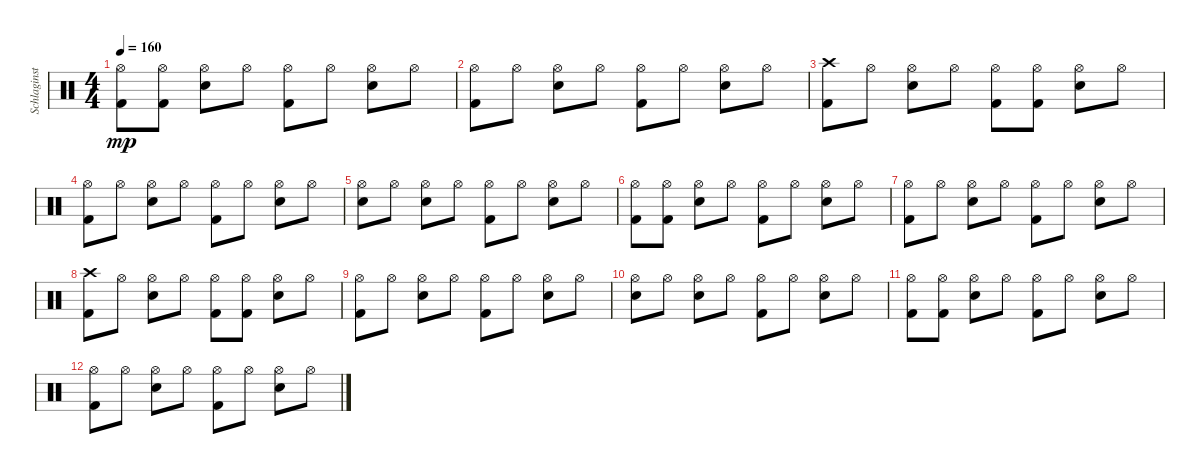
\track ("Schlaginstrumente - Auswahl" "Schlaginst") {instrument percussion}
\staff {score}
\articulation defaults
\ts (4 4)
\tempo 160
\clef neutral
\ks c
("Hi-Hat (open)" "Kick (hit) 2").8{dy mp} ("Hi-Hat (open)" "Kick (hit) 2").8 ("Hi-Hat (open)" "Snare (hit) 2").8 "Hi-Hat (open)".8 ("Hi-Hat (open)" "Kick (hit) 2").8 "Hi-Hat (open)".8 ("Hi-Hat (open)" "Snare (hit) 2").8 "Hi-Hat (open)".8 |
("Hi-Hat (open)" "Kick (hit) 2").8 "Hi-Hat (open)".8 ("Hi-Hat (open)" "Snare (hit) 2").8 "Hi-Hat (open)".8 ("Hi-Hat (open)" "Kick (hit) 2").8 "Hi-Hat (open)".8 ("Hi-Hat (open)" "Snare (hit) 2").8 "Hi-Hat (open)".8 |
("Crash high (hit)" "Kick (hit) 2").8 "Hi-Hat (open)".8 ("Hi-Hat (open)" "Snare (hit) 2").8 "Hi-Hat (open)".8 ("Hi-Hat (open)" "Kick (hit) 2").8 ("Hi-Hat (open)" "Kick (hit) 2").8 ("Hi-Hat (open)" "Snare (hit) 2").8 "Hi-Hat (open)".8 |
("Hi-Hat (open)" "Kick (hit) 2").8 "Hi-Hat (open)".8 ("Hi-Hat (open)" "Snare (hit) 2").8 "Hi-Hat (open)".8 ("Hi-Hat (open)" "Kick (hit) 2").8 "Hi-Hat (open)".8 ("Hi-Hat (open)" "Snare (hit) 2").8 "Hi-Hat (open)".8 |
("Hi-Hat (open)" "Snare (hit) 2").8 "Hi-Hat (open)".8 ("Hi-Hat (open)" "Snare (hit) 2").8 "Hi-Hat (open)".8 ("Hi-Hat (open)" "Kick (hit) 2").8 "Hi-Hat (open)".8 ("Hi-Hat (open)" "Snare (hit) 2").8 "Hi-Hat (open)".8 |
("Hi-Hat (open)" "Kick (hit) 2").8 ("Hi-Hat (open)" "Kick (hit) 2").8 ("Hi-Hat (open)" "Snare (hit) 2").8 "Hi-Hat (open)".8 ("Hi-Hat (open)" "Kick (hit) 2").8 "Hi-Hat (open)".8 ("Hi-Hat (open)" "Snare (hit) 2").8 "Hi-Hat (open)".8 |
("Hi-Hat (open)" "Kick (hit) 2").8 "Hi-Hat (open)".8 ("Hi-Hat (open)" "Snare (hit) 2").8 "Hi-Hat (open)".8 ("Hi-Hat (open)" "Kick (hit) 2").8 "Hi-Hat (open)".8 ("Hi-Hat (open)" "Snare (hit) 2").8 "Hi-Hat (open)".8 |
("Crash high (hit)" "Kick (hit) 2").8 "Hi-Hat (open)".8 ("Hi-Hat (open)" "Snare (hit) 2").8 "Hi-Hat (open)".8 ("Hi-Hat (open)" "Kick (hit) 2").8 ("Hi-Hat (open)" "Kick (hit) 2").8 ("Hi-Hat (open)" "Snare (hit) 2").8 "Hi-Hat (open)".8 |
("Hi-Hat (open)" "Kick (hit) 2").8 "Hi-Hat (open)".8 ("Hi-Hat (open)" "Snare (hit) 2").8 "Hi-Hat (open)".8 ("Hi-Hat (open)" "Kick (hit) 2").8 "Hi-Hat (open)".8 ("Hi-Hat (open)" "Snare (hit) 2").8 "Hi-Hat (open)".8 |
("Hi-Hat (open)" "Snare (hit) 2").8 "Hi-Hat (open)".8 ("Hi-Hat (open)" "Snare (hit) 2").8 "Hi-Hat (open)".8 ("Hi-Hat (open)" "Kick (hit) 2").8 "Hi-Hat (open)".8 ("Hi-Hat (open)" "Snare (hit) 2").8 "Hi-Hat (open)".8 |
("Hi-Hat (open)" "Kick (hit) 2").8 ("Hi-Hat (open)" "Kick (hit) 2").8 ("Hi-Hat (open)" "Snare (hit) 2").8 "Hi-Hat (open)".8 ("Hi-Hat (open)" "Kick (hit) 2").8 "Hi-Hat (open)".8 ("Hi-Hat (open)" "Snare (hit) 2").8 "Hi-Hat (open)".8 |
("Hi-Hat (open)" "Kick (hit) 2").8 "Hi-Hat (open)".8 ("Hi-Hat (open)" "Snare (hit) 2").8 "Hi-Hat (open)".8 ("Hi-Hat (open)" "Kick (hit) 2").8 "Hi-Hat (open)".8 ("Hi-Hat (open)" "Snare (hit) 2").8 "Hi-Hat (open)".8
